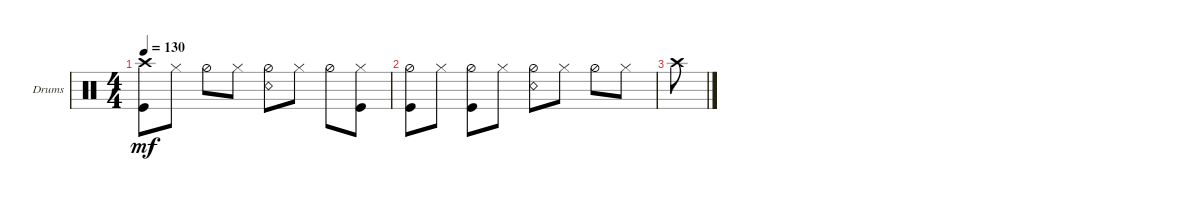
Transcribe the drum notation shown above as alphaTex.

\defaultSystemsLayout 4
\bracketExtendMode groupsimilarinstruments
\firstSystemTrackNameOrientation horizontal
\otherSystemsTrackNameOrientation horizontal
\track ("Drumkit" "Drums") {instrument percussion}
\staff {score}
\articulation defaults
\ts (4 4)
\tempo 130
\clef neutral
\ks c
("Kick (hit)" "Crash high (hit)").8{dy mf} "Hi-Hat (closed)".8 "Hi-Hat (half)".8 "Hi-Hat (closed)".8 ("Hi-Hat (half)" "Snare (rim shot)").8 "Hi-Hat (closed)".8 "Hi-Hat (half)".8 ("Hi-Hat (closed)" "Kick (hit)").8 |
("Kick (hit)" "Hi-Hat (half)").8 "Hi-Hat (closed)".8 ("Hi-Hat (half)" "Kick (hit)").8 "Hi-Hat (closed)".8 ("Hi-Hat (half)" "Snare (rim shot)").8 "Hi-Hat (closed)".8 "Hi-Hat (half)".8 "Hi-Hat (closed)".8 |
"Crash high (hit)".8
